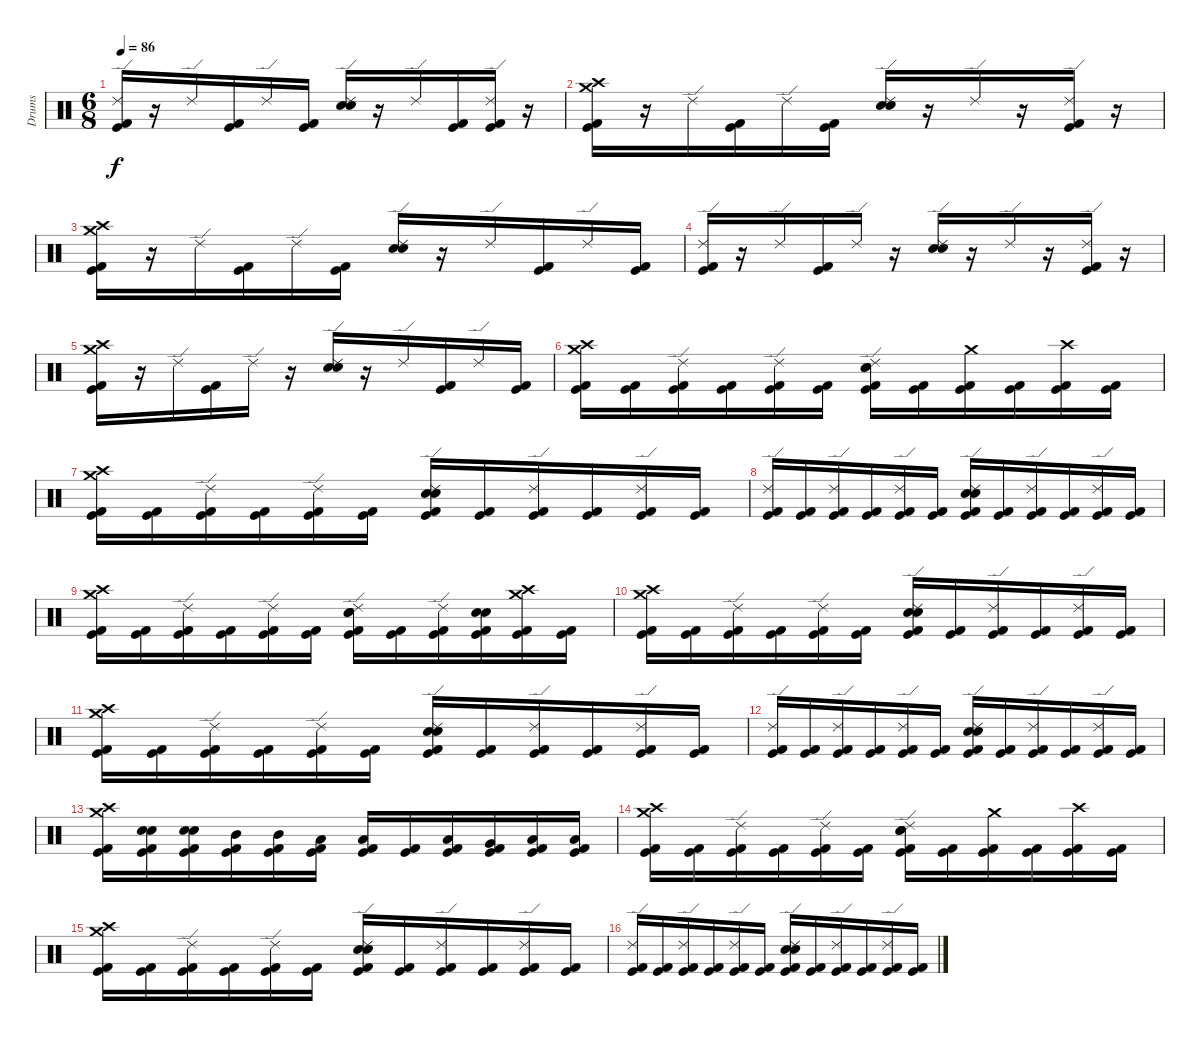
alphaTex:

\track ("Drums" "Drums") {instrument percussion}
\staff {score}
\articulation defaults
\ts (6 8)
\tempo 86
\clef neutral
\ks c
("Ride (edge) 2" "Kick (hit) 2" "Kick (hit)").16{dy f} r.16 "Ride (edge) 2".16 ("Kick (hit) 2" "Kick (hit)").16 "Ride (edge) 2".16 ("Kick (hit) 2" "Kick (hit)").16 ("Ride (edge) 2" "Snare (hit) 2" "Electric Snare (hit)").16 r.16 "Ride (edge) 2".16 ("Kick (hit) 2" "Kick (hit)").16 ("Kick (hit) 2" "Kick (hit)" "Ride (edge) 2").16 r.16 |
("Crash high (hit)" "Crash medium (hit)" "Kick (hit) 2" "Kick (hit)").16 r.16 "Ride (edge) 2".16 ("Kick (hit) 2" "Kick (hit)").16 "Ride (edge) 2".16 ("Kick (hit) 2" "Kick (hit)").16 ("Ride (edge) 2" "Electric Snare (hit)" "Snare (hit) 2").16 r.16 "Ride (edge) 2".16 r.16 ("Ride (edge) 2" "Kick (hit) 2" "Kick (hit)").16 r.16 |
("Crash high (hit)" "Crash medium (hit)" "Kick (hit) 2" "Kick (hit)").16 r.16 "Ride (edge) 2".16 ("Kick (hit) 2" "Kick (hit)").16 "Ride (edge) 2".16 ("Kick (hit) 2" "Kick (hit)").16 ("Ride (edge) 2" "Electric Snare (hit)" "Snare (hit) 2").16 r.16 "Ride (edge) 2".16 ("Kick (hit)" "Kick (hit) 2").16 "Ride (edge) 2".16 ("Kick (hit) 2" "Kick (hit)").16 |
("Ride (edge) 2" "Kick (hit) 2" "Kick (hit)").16 r.16 "Ride (edge) 2".16 ("Kick (hit) 2" "Kick (hit)").16 "Ride (edge) 2".16 r.16 ("Electric Snare (hit)" "Snare (hit) 2" "Ride (edge) 2").16 r.16 "Ride (edge) 2".16 r.16 ("Kick (hit) 2" "Kick (hit)" "Ride (edge) 2").16 r.16 |
("Crash high (hit)" "Crash medium (hit)" "Kick (hit) 2" "Kick (hit)").16 r.16 "Ride (edge) 2".16 ("Kick (hit) 2" "Kick (hit)").16 "Ride (edge) 2".16 r.16 ("Electric Snare (hit)" "Snare (hit) 2" "Ride (edge) 2").16 r.16 "Ride (edge) 2".16 ("Kick (hit)" "Kick (hit) 2").16 "Ride (edge) 2".16 ("Kick (hit) 2" "Kick (hit)").16 |
("Crash high (hit)" "Crash medium (hit)" "Kick (hit) 2" "Kick (hit)").16 ("Kick (hit) 2" "Kick (hit)").16 ("Ride (edge) 2" "Kick (hit) 2" "Kick (hit)").16 ("Kick (hit) 2" "Kick (hit)").16 ("Ride (edge) 2" "Kick (hit) 2" "Kick (hit)").16 ("Kick (hit) 2" "Kick (hit)").16 ("Electric Snare (hit)" "Snare (hit) 2" "Ride (edge) 2" "Kick (hit) 2" "Kick (hit)").16 ("Kick (hit) 2" "Kick (hit)").16 ("Crash medium (hit)" "Kick (hit) 2" "Kick (hit)").16 ("Kick (hit) 2" "Kick (hit)").16 ("Crash high (hit)" "Kick (hit) 2" "Kick (hit)").16 ("Kick (hit) 2" "Kick (hit)").16 |
("Crash high (hit)" "Crash medium (hit)" "Kick (hit) 2" "Kick (hit)").16 ("Kick (hit) 2" "Kick (hit)").16 ("Ride (edge) 2" "Kick (hit) 2" "Kick (hit)").16 ("Kick (hit) 2" "Kick (hit)").16 ("Ride (edge) 2" "Kick (hit) 2" "Kick (hit)").16 ("Kick (hit) 2" "Kick (hit)").16 ("Electric Snare (hit)" "Snare (hit) 2" "Ride (edge) 2" "Kick (hit) 2" "Kick (hit)").16 ("Kick (hit) 2" "Kick (hit)").16 ("Ride (edge) 2" "Kick (hit) 2" "Kick (hit)").16 ("Kick (hit) 2" "Kick (hit)").16 ("Ride (edge) 2" "Kick (hit) 2" "Kick (hit)").16 ("Kick (hit) 2" "Kick (hit)").16 |
("Ride (edge) 2" "Kick (hit) 2" "Kick (hit)").16 ("Kick (hit) 2" "Kick (hit)").16 ("Ride (edge) 2" "Kick (hit) 2" "Kick (hit)").16 ("Kick (hit) 2" "Kick (hit)").16 ("Ride (edge) 2" "Kick (hit) 2" "Kick (hit)").16 ("Kick (hit) 2" "Kick (hit)").16 ("Electric Snare (hit)" "Snare (hit) 2" "Ride (edge) 2" "Kick (hit) 2" "Kick (hit)").16 ("Kick (hit) 2" "Kick (hit)").16 ("Ride (edge) 2" "Kick (hit) 2" "Kick (hit)").16 ("Kick (hit) 2" "Kick (hit)").16 ("Ride (edge) 2" "Kick (hit) 2" "Kick (hit)").16 ("Kick (hit) 2" "Kick (hit)").16 |
("Crash high (hit)" "Crash medium (hit)" "Kick (hit) 2" "Kick (hit)").16 ("Kick (hit) 2" "Kick (hit)").16 ("Ride (edge) 2" "Kick (hit) 2" "Kick (hit)").16 ("Kick (hit) 2" "Kick (hit)").16 ("Ride (edge) 2" "Kick (hit) 2" "Kick (hit)").16 ("Kick (hit) 2" "Kick (hit)").16 ("Electric Snare (hit)" "Snare (hit) 2" "Ride (edge) 2" "Kick (hit) 2" "Kick (hit)").16 ("Kick (hit) 2" "Kick (hit)").16 ("Ride (edge) 2" "Kick (hit) 2" "Kick (hit)").16 ("Electric Snare (hit)" "Snare (hit) 2" "Kick (hit) 2" "Kick (hit)").16 ("Crash high (hit)" "Crash medium (hit)" "Kick (hit) 2" "Kick (hit)").16 ("Kick (hit) 2" "Kick (hit)").16 |
("Crash high (hit)" "Crash medium (hit)" "Kick (hit) 2" "Kick (hit)").16 ("Kick (hit) 2" "Kick (hit)").16 ("Ride (edge) 2" "Kick (hit) 2" "Kick (hit)").16 ("Kick (hit) 2" "Kick (hit)").16 ("Ride (edge) 2" "Kick (hit) 2" "Kick (hit)").16 ("Kick (hit) 2" "Kick (hit)").16 ("Electric Snare (hit)" "Snare (hit) 2" "Ride (edge) 2" "Kick (hit) 2" "Kick (hit)").16 ("Kick (hit) 2" "Kick (hit)").16 ("Ride (edge) 2" "Kick (hit) 2" "Kick (hit)").16 ("Kick (hit) 2" "Kick (hit)").16 ("Ride (edge) 2" "Kick (hit) 2" "Kick (hit)").16 ("Kick (hit) 2" "Kick (hit)").16 |
("Crash high (hit)" "Crash medium (hit)" "Kick (hit) 2" "Kick (hit)").16 ("Kick (hit) 2" "Kick (hit)").16 ("Ride (edge) 2" "Kick (hit) 2" "Kick (hit)").16 ("Kick (hit) 2" "Kick (hit)").16 ("Ride (edge) 2" "Kick (hit) 2" "Kick (hit)").16 ("Kick (hit) 2" "Kick (hit)").16 ("Electric Snare (hit)" "Snare (hit) 2" "Ride (edge) 2" "Kick (hit) 2" "Kick (hit)").16 ("Kick (hit) 2" "Kick (hit)").16 ("Ride (edge) 2" "Kick (hit) 2" "Kick (hit)").16 ("Kick (hit) 2" "Kick (hit)").16 ("Ride (edge) 2" "Kick (hit) 2" "Kick (hit)").16 ("Kick (hit) 2" "Kick (hit)").16 |
("Ride (edge) 2" "Kick (hit) 2" "Kick (hit)").16 ("Kick (hit) 2" "Kick (hit)").16 ("Ride (edge) 2" "Kick (hit) 2" "Kick (hit)").16 ("Kick (hit) 2" "Kick (hit)").16 ("Ride (edge) 2" "Kick (hit) 2" "Kick (hit)").16 ("Kick (hit) 2" "Kick (hit)").16 ("Electric Snare (hit)" "Snare (hit) 2" "Ride (edge) 2" "Kick (hit) 2" "Kick (hit)").16 ("Kick (hit) 2" "Kick (hit)").16 ("Ride (edge) 2" "Kick (hit) 2" "Kick (hit)").16 ("Kick (hit) 2" "Kick (hit)").16 ("Ride (edge) 2" "Kick (hit) 2" "Kick (hit)").16 ("Kick (hit) 2" "Kick (hit)").16 |
("Crash high (hit)" "Crash medium (hit)" "Kick (hit) 2" "Kick (hit)").16 ("Kick (hit) 2" "Kick (hit)" "Electric Snare (hit)" "Snare (hit) 2").16 ("Kick (hit) 2" "Kick (hit)" "Electric Snare (hit)" "Snare (hit) 2").16 ("Kick (hit) 2" "Kick (hit)" "Mid Tom (hit)").16 ("Kick (hit) 2" "Kick (hit)" "Mid Tom (hit)").16 ("Kick (hit) 2" "Kick (hit)" "Low Tom (hit)").16 ("Kick (hit)" "Kick (hit) 2" "Low Tom (hit)").16 ("Kick (hit) 2" "Kick (hit)").16 ("Kick (hit) 2" "Kick (hit)" "Low Tom (hit)").16 ("Kick (hit) 2" "Kick (hit)" "Very Low Tom (hit)").16 ("Kick (hit) 2" "Kick (hit)" "Low Floor Tom (hit)").16 ("Kick (hit) 2" "Kick (hit)" "Low Floor Tom (hit)").16 |
("Crash high (hit)" "Crash medium (hit)" "Kick (hit) 2" "Kick (hit)").16 ("Kick (hit) 2" "Kick (hit)").16 ("Ride (edge) 2" "Kick (hit) 2" "Kick (hit)").16 ("Kick (hit) 2" "Kick (hit)").16 ("Ride (edge) 2" "Kick (hit) 2" "Kick (hit)").16 ("Kick (hit) 2" "Kick (hit)").16 ("Electric Snare (hit)" "Snare (hit) 2" "Ride (edge) 2" "Kick (hit) 2" "Kick (hit)").16 ("Kick (hit) 2" "Kick (hit)").16 ("Crash medium (hit)" "Kick (hit) 2" "Kick (hit)").16 ("Kick (hit) 2" "Kick (hit)").16 ("Crash high (hit)" "Kick (hit) 2" "Kick (hit)").16 ("Kick (hit) 2" "Kick (hit)").16 |
("Crash high (hit)" "Crash medium (hit)" "Kick (hit) 2" "Kick (hit)").16 ("Kick (hit) 2" "Kick (hit)").16 ("Ride (edge) 2" "Kick (hit) 2" "Kick (hit)").16 ("Kick (hit) 2" "Kick (hit)").16 ("Ride (edge) 2" "Kick (hit) 2" "Kick (hit)").16 ("Kick (hit) 2" "Kick (hit)").16 ("Electric Snare (hit)" "Snare (hit) 2" "Ride (edge) 2" "Kick (hit) 2" "Kick (hit)").16 ("Kick (hit) 2" "Kick (hit)").16 ("Ride (edge) 2" "Kick (hit) 2" "Kick (hit)").16 ("Kick (hit) 2" "Kick (hit)").16 ("Ride (edge) 2" "Kick (hit) 2" "Kick (hit)").16 ("Kick (hit) 2" "Kick (hit)").16 |
("Ride (edge) 2" "Kick (hit) 2" "Kick (hit)").16 ("Kick (hit) 2" "Kick (hit)").16 ("Ride (edge) 2" "Kick (hit) 2" "Kick (hit)").16 ("Kick (hit) 2" "Kick (hit)").16 ("Ride (edge) 2" "Kick (hit) 2" "Kick (hit)").16 ("Kick (hit) 2" "Kick (hit)").16 ("Electric Snare (hit)" "Snare (hit) 2" "Ride (edge) 2" "Kick (hit) 2" "Kick (hit)").16 ("Kick (hit) 2" "Kick (hit)").16 ("Ride (edge) 2" "Kick (hit) 2" "Kick (hit)").16 ("Kick (hit) 2" "Kick (hit)").16 ("Ride (edge) 2" "Kick (hit) 2" "Kick (hit)").16 ("Kick (hit) 2" "Kick (hit)").16
